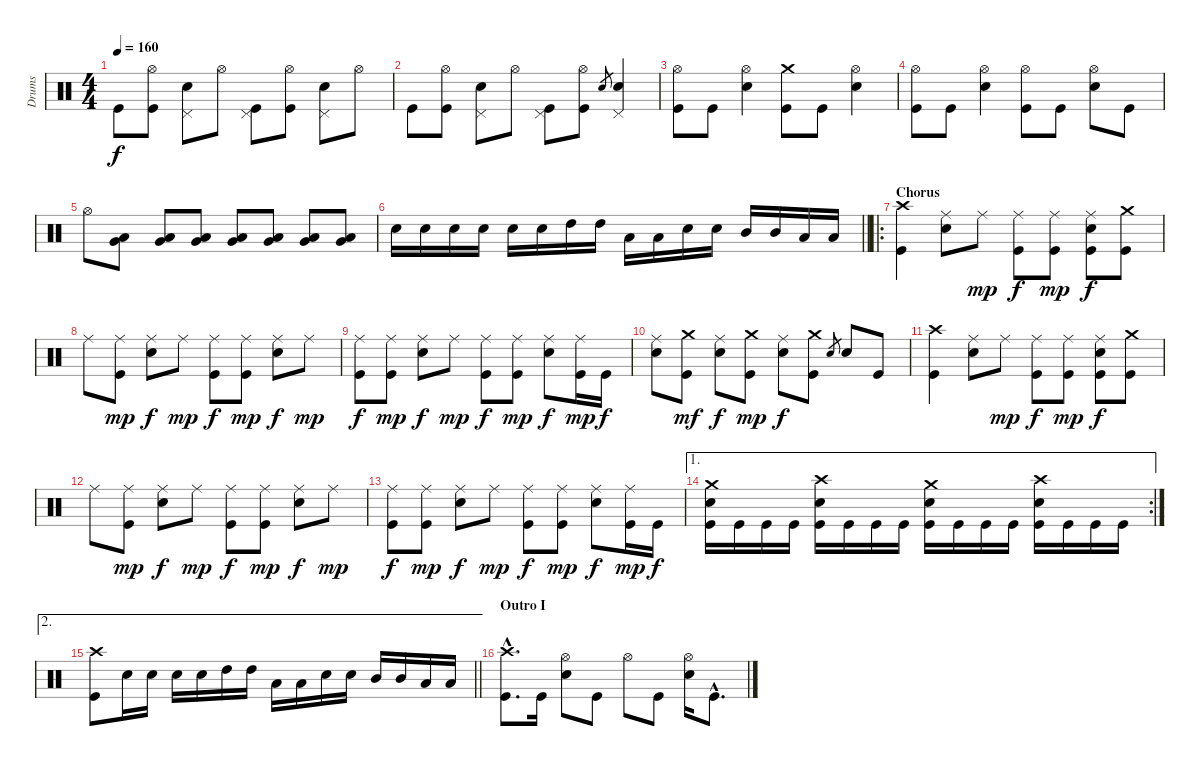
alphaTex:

\track ("Drums" "Drums") {instrument percussion}
\staff {score}
\articulation defaults
\ts (4 4)
\tempo 160
\clef neutral
\ks c "Kick (hit)".8{dy f}
("Hi-Hat (open)" "Kick (hit)").8 ("Pedal Hi-Hat (hit)" "Electric Snare (hit)").8 "Hi-Hat (open)".8 ("Pedal Hi-Hat (hit)" "Kick (hit)").8 ("Hi-Hat (open)" "Kick (hit)").8 ("Pedal Hi-Hat (hit)" "Electric Snare (hit)").8 "Hi-Hat (open)".8 |
"Kick (hit)".8 ("Hi-Hat (open)" "Kick (hit)").8 ("Pedal Hi-Hat (hit)" "Electric Snare (hit)").8 "Hi-Hat (open)".8 ("Pedal Hi-Hat (hit)" "Kick (hit)").8 ("Hi-Hat (open)" "Kick (hit)").8 "Electric Snare (hit)".8{gr} ("Pedal Hi-Hat (hit)" "Electric Snare (hit)").4 |
("Hi-Hat (open)" "Kick (hit)").8 "Kick (hit)".8 ("Hi-Hat (open)" "Electric Snare (hit)").4 ("Crash medium (hit)" "Kick (hit)").8 "Kick (hit)".8 ("Hi-Hat (open)" "Electric Snare (hit)").4 |
("Hi-Hat (open)" "Kick (hit)").8 "Kick (hit)".8 ("Hi-Hat (open)" "Electric Snare (hit)").4 ("Hi-Hat (open)" "Kick (hit)").8 "Kick (hit)".8 ("Hi-Hat (open)" "Electric Snare (hit)").8 "Kick (hit)".8 |
"Hi-Hat (open)".8 ("Very Low Tom (hit)" "Low Tom (hit)").8 ("Very Low Tom (hit)" "Low Tom (hit)").8 ("Very Low Tom (hit)" "Low Tom (hit)").8 ("Very Low Tom (hit)" "Low Tom (hit)").8 ("Very Low Tom (hit)" "Low Tom (hit)").8 ("Very Low Tom (hit)" "Low Tom (hit)").8 ("Very Low Tom (hit)" "Low Tom (hit)").8 |
\barLineRight lightlight "Electric Snare (hit)".16 "Electric Snare (hit)".16 "Electric Snare (hit)".16 "Electric Snare (hit)".16 "Electric Snare (hit)".16 "Electric Snare (hit)".16 "High Tom (hit)".16 "High Tom (hit)".16 "Low Tom (hit)".16 "Low Tom (hit)".16 "Electric Snare (hit)".16 "Electric Snare (hit)".16 "Mid Tom (hit)".16 "Mid Tom (hit)".16 "Low Tom (hit)".16 "Low Tom (hit)".16
|
\ro
\section ("" "Chorus")
("Crash high (hit)" "Kick (hit)").4 ("Ride (middle)" "Electric Snare (hit)").8 "Ride (middle)".8{dy mp} ("Ride (middle)" "Kick (hit)").8{dy f} ("Ride (middle)" "Kick (hit)").8{dy mp} ("Ride (middle)" "Electric Snare (hit)" "Kick (hit)").8{dy f} ("Crash medium (hit)" "Kick (hit)").8 |
"Ride (middle)".8 ("Ride (middle)" "Kick (hit)").8{dy mp} ("Ride (middle)" "Electric Snare (hit)").8{dy f} "Ride (middle)".8{dy mp} ("Ride (middle)" "Kick (hit)").8{dy f} ("Ride (middle)" "Kick (hit)").8{dy mp} ("Ride (middle)" "Electric Snare (hit)").8{dy f} "Ride (middle)".8{dy mp} |
("Ride (middle)" "Kick (hit)").8{dy f} ("Ride (middle)" "Kick (hit)").8{dy mp} ("Ride (middle)" "Electric Snare (hit)").8{dy f} "Ride (middle)".8{dy mp} ("Ride (middle)" "Kick (hit)").8{dy f} ("Ride (middle)" "Kick (hit)").8{dy mp} ("Ride (middle)" "Electric Snare (hit)").8{dy f} ("Ride (middle)" "Kick (hit)").16{dy mp} "Kick (hit)".16{dy f} |
("Ride (middle)" "Electric Snare (hit)").8 ("Crash medium (hit)" "Kick (hit)").8{dy mf} ("Ride (middle)" "Electric Snare (hit)").8{dy f} ("Crash medium (hit)" "Kick (hit)").8{dy mp} ("Ride (middle)" "Electric Snare (hit)").8{dy f} ("Crash medium (hit)" "Kick (hit)").8 "Electric Snare (hit)".8{gr} "Electric Snare (hit)".8 "Kick (hit)".8 |
("Crash high (hit)" "Kick (hit)").4 ("Ride (middle)" "Electric Snare (hit)").8 "Ride (middle)".8{dy mp} ("Ride (middle)" "Kick (hit)").8{dy f} ("Ride (middle)" "Kick (hit)").8{dy mp} ("Ride (middle)" "Electric Snare (hit)" "Kick (hit)").8{dy f} ("Crash medium (hit)" "Kick (hit)").8 |
"Ride (middle)".8 ("Ride (middle)" "Kick (hit)").8{dy mp} ("Ride (middle)" "Electric Snare (hit)").8{dy f} "Ride (middle)".8{dy mp} ("Ride (middle)" "Kick (hit)").8{dy f} ("Ride (middle)" "Kick (hit)").8{dy mp} ("Ride (middle)" "Electric Snare (hit)").8{dy f} "Ride (middle)".8{dy mp} |
("Ride (middle)" "Kick (hit)").8{dy f} ("Ride (middle)" "Kick (hit)").8{dy mp} ("Ride (middle)" "Electric Snare (hit)").8{dy f} "Ride (middle)".8{dy mp} ("Ride (middle)" "Kick (hit)").8{dy f} ("Ride (middle)" "Kick (hit)").8{dy mp} ("Ride (middle)" "Electric Snare (hit)").8{dy f} ("Ride (middle)" "Kick (hit)").16{dy mp} "Kick (hit)".16{dy f} |
\ae 1
\rc 2
("Crash medium (hit)" "Electric Snare (hit)" "Kick (hit)").16 "Kick (hit)".16 "Kick (hit)".16 "Kick (hit)".16 ("Crash high (hit)" "Electric Snare (hit)" "Kick (hit)").16 "Kick (hit)".16 "Kick (hit)".16 "Kick (hit)".16 ("Crash medium (hit)" "Electric Snare (hit)" "Kick (hit)").16 "Kick (hit)".16 "Kick (hit)".16 "Kick (hit)".16 ("Crash high (hit)" "Electric Snare (hit)" "Kick (hit)").16 "Kick (hit)".16 "Kick (hit)".16 "Kick (hit)".16 |
\ae 2
\barLineRight lightlight
("Crash high (hit)" "Kick (hit)").8 "Electric Snare (hit)".16 "Electric Snare (hit)".16 "Electric Snare (hit)".16 "Electric Snare (hit)".16 "High Tom (hit)".16 "High Tom (hit)".16 "Low Tom (hit)".16 "Low Tom (hit)".16 "Electric Snare (hit)".16 "Electric Snare (hit)".16 "Mid Tom (hit)".16 "Mid Tom (hit)".16 "Low Tom (hit)".16 "Low Tom (hit)".16 |
\section ("" "Outro I")
("Crash high (hit)"{hac} "Kick (hit)"{hac}).8{d} "Kick (hit)".16 ("Hi-Hat (open)" "Electric Snare (hit)").8 "Kick (hit)".8 "Hi-Hat (open)".8 "Kick (hit)".8 ("Hi-Hat (open)" "Electric Snare (hit)").16 "Kick (hit)"{hac}.8{d}
